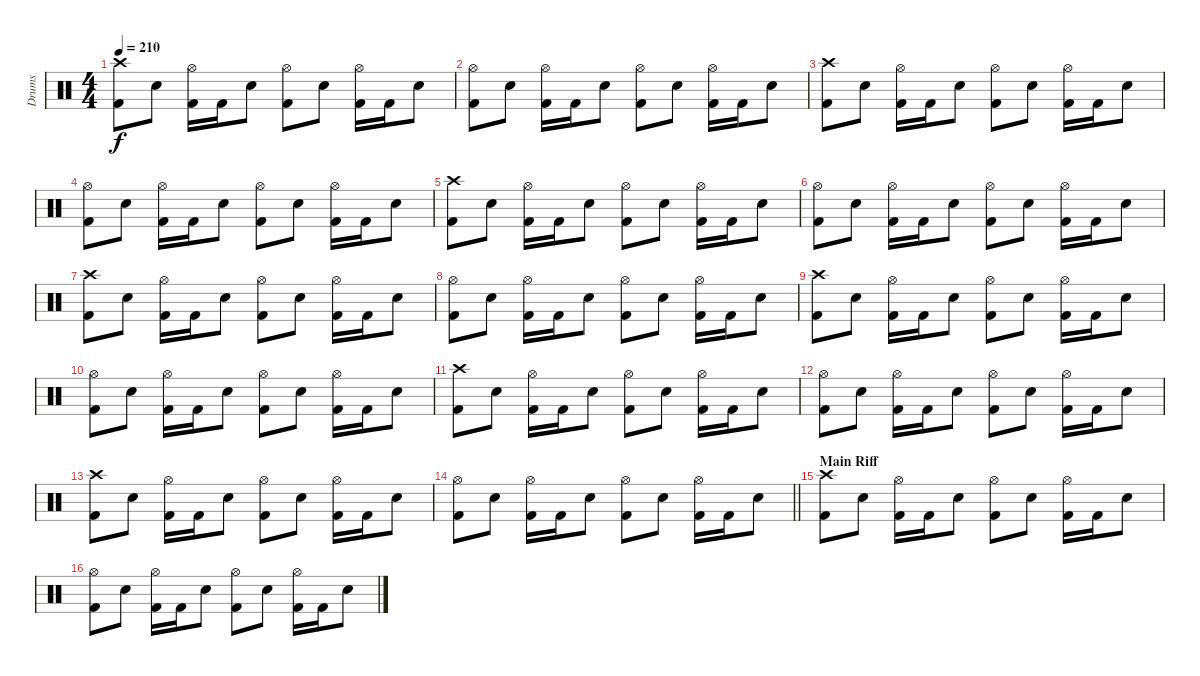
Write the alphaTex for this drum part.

\track ("Drums" "Drums") {instrument percussion}
\staff {score}
\articulation defaults
\ts (4 4)
\tempo 210
\clef neutral
\ks c
("Crash high (hit)" "Kick (hit) 2").8{dy f} "Snare (hit) 2".8 ("Hi-Hat (open)" "Kick (hit) 2").16 "Kick (hit) 2".16 "Snare (hit) 2".8 ("Hi-Hat (open)" "Kick (hit) 2").8 "Snare (hit) 2".8 ("Hi-Hat (open)" "Kick (hit) 2").16 "Kick (hit) 2".16 "Snare (hit) 2".8 |
("Hi-Hat (open)" "Kick (hit) 2").8 "Snare (hit) 2".8 ("Hi-Hat (open)" "Kick (hit) 2").16 "Kick (hit) 2".16 "Snare (hit) 2".8 ("Hi-Hat (open)" "Kick (hit) 2").8 "Snare (hit) 2".8 ("Hi-Hat (open)" "Kick (hit) 2").16 "Kick (hit) 2".16 "Snare (hit) 2".8 |
("Crash high (hit)" "Kick (hit) 2").8 "Snare (hit) 2".8 ("Hi-Hat (open)" "Kick (hit) 2").16 "Kick (hit) 2".16 "Snare (hit) 2".8 ("Hi-Hat (open)" "Kick (hit) 2").8 "Snare (hit) 2".8 ("Hi-Hat (open)" "Kick (hit) 2").16 "Kick (hit) 2".16 "Snare (hit) 2".8 |
("Hi-Hat (open)" "Kick (hit) 2").8 "Snare (hit) 2".8 ("Hi-Hat (open)" "Kick (hit) 2").16 "Kick (hit) 2".16 "Snare (hit) 2".8 ("Hi-Hat (open)" "Kick (hit) 2").8 "Snare (hit) 2".8 ("Hi-Hat (open)" "Kick (hit) 2").16 "Kick (hit) 2".16 "Snare (hit) 2".8 |
("Crash high (hit)" "Kick (hit) 2").8 "Snare (hit) 2".8 ("Hi-Hat (open)" "Kick (hit) 2").16 "Kick (hit) 2".16 "Snare (hit) 2".8 ("Hi-Hat (open)" "Kick (hit) 2").8 "Snare (hit) 2".8 ("Hi-Hat (open)" "Kick (hit) 2").16 "Kick (hit) 2".16 "Snare (hit) 2".8 |
("Hi-Hat (open)" "Kick (hit) 2").8 "Snare (hit) 2".8 ("Hi-Hat (open)" "Kick (hit) 2").16 "Kick (hit) 2".16 "Snare (hit) 2".8 ("Hi-Hat (open)" "Kick (hit) 2").8 "Snare (hit) 2".8 ("Hi-Hat (open)" "Kick (hit) 2").16 "Kick (hit) 2".16 "Snare (hit) 2".8 |
("Crash high (hit)" "Kick (hit) 2").8 "Snare (hit) 2".8 ("Hi-Hat (open)" "Kick (hit) 2").16 "Kick (hit) 2".16 "Snare (hit) 2".8 ("Hi-Hat (open)" "Kick (hit) 2").8 "Snare (hit) 2".8 ("Hi-Hat (open)" "Kick (hit) 2").16 "Kick (hit) 2".16 "Snare (hit) 2".8 |
("Hi-Hat (open)" "Kick (hit) 2").8 "Snare (hit) 2".8 ("Hi-Hat (open)" "Kick (hit) 2").16 "Kick (hit) 2".16 "Snare (hit) 2".8 ("Hi-Hat (open)" "Kick (hit) 2").8 "Snare (hit) 2".8 ("Hi-Hat (open)" "Kick (hit) 2").16 "Kick (hit) 2".16 "Snare (hit) 2".8 |
("Crash high (hit)" "Kick (hit) 2").8 "Snare (hit) 2".8 ("Hi-Hat (open)" "Kick (hit) 2").16 "Kick (hit) 2".16 "Snare (hit) 2".8 ("Hi-Hat (open)" "Kick (hit) 2").8 "Snare (hit) 2".8 ("Hi-Hat (open)" "Kick (hit) 2").16 "Kick (hit) 2".16 "Snare (hit) 2".8 |
("Hi-Hat (open)" "Kick (hit) 2").8 "Snare (hit) 2".8 ("Hi-Hat (open)" "Kick (hit) 2").16 "Kick (hit) 2".16 "Snare (hit) 2".8 ("Hi-Hat (open)" "Kick (hit) 2").8 "Snare (hit) 2".8 ("Hi-Hat (open)" "Kick (hit) 2").16 "Kick (hit) 2".16 "Snare (hit) 2".8 |
("Crash high (hit)" "Kick (hit) 2").8 "Snare (hit) 2".8 ("Hi-Hat (open)" "Kick (hit) 2").16 "Kick (hit) 2".16 "Snare (hit) 2".8 ("Hi-Hat (open)" "Kick (hit) 2").8 "Snare (hit) 2".8 ("Hi-Hat (open)" "Kick (hit) 2").16 "Kick (hit) 2".16 "Snare (hit) 2".8 |
("Hi-Hat (open)" "Kick (hit) 2").8 "Snare (hit) 2".8 ("Hi-Hat (open)" "Kick (hit) 2").16 "Kick (hit) 2".16 "Snare (hit) 2".8 ("Hi-Hat (open)" "Kick (hit) 2").8 "Snare (hit) 2".8 ("Hi-Hat (open)" "Kick (hit) 2").16 "Kick (hit) 2".16 "Snare (hit) 2".8 |
("Crash high (hit)" "Kick (hit) 2").8 "Snare (hit) 2".8 ("Hi-Hat (open)" "Kick (hit) 2").16 "Kick (hit) 2".16 "Snare (hit) 2".8 ("Hi-Hat (open)" "Kick (hit) 2").8 "Snare (hit) 2".8 ("Hi-Hat (open)" "Kick (hit) 2").16 "Kick (hit) 2".16 "Snare (hit) 2".8 |
\barLineRight lightlight
("Hi-Hat (open)" "Kick (hit) 2").8 "Snare (hit) 2".8 ("Hi-Hat (open)" "Kick (hit) 2").16 "Kick (hit) 2".16 "Snare (hit) 2".8 ("Hi-Hat (open)" "Kick (hit) 2").8 "Snare (hit) 2".8 ("Hi-Hat (open)" "Kick (hit) 2").16 "Kick (hit) 2".16 "Snare (hit) 2".8 |
\section ("" "Main Riff")
("Crash high (hit)" "Kick (hit) 2").8 "Snare (hit) 2".8 ("Hi-Hat (open)" "Kick (hit) 2").16 "Kick (hit) 2".16 "Snare (hit) 2".8 ("Hi-Hat (open)" "Kick (hit) 2").8 "Snare (hit) 2".8 ("Hi-Hat (open)" "Kick (hit) 2").16 "Kick (hit) 2".16 "Snare (hit) 2".8 |
("Hi-Hat (open)" "Kick (hit) 2").8 "Snare (hit) 2".8 ("Hi-Hat (open)" "Kick (hit) 2").16 "Kick (hit) 2".16 "Snare (hit) 2".8 ("Hi-Hat (open)" "Kick (hit) 2").8 "Snare (hit) 2".8 ("Hi-Hat (open)" "Kick (hit) 2").16 "Kick (hit) 2".16 "Snare (hit) 2".8
